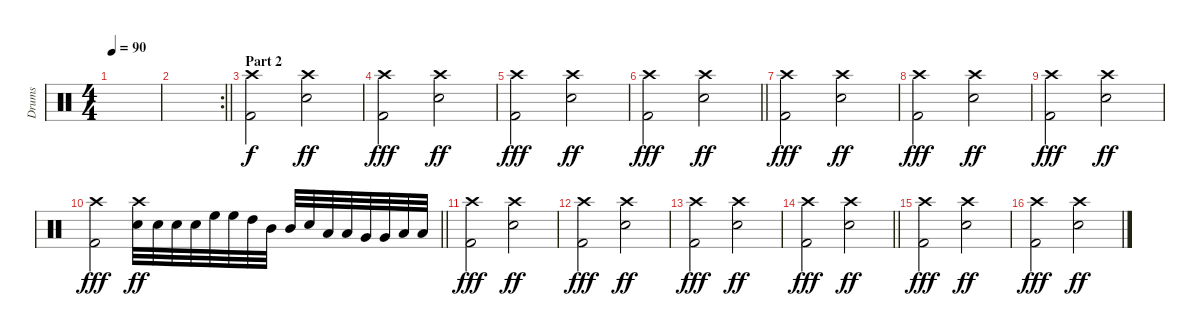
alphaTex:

\track ("Drums" "Drums") {instrument percussion}
\staff {score}
\articulation defaults
\ts (4 4)
\tempo 90
\clef neutral
\ks c
|
\rc 2
\barLineRight lightlight
|
\section ("" "Part 2")
("Crash high (hit)" "Kick (hit) 2").2 ("Crash high (hit)" "Electric Snare (hit)").2{dy ff} |
("Crash high (hit)" "Kick (hit) 2").2{dy fff} ("Crash high (hit)" "Electric Snare (hit)").2{dy ff} |
("Crash high (hit)" "Kick (hit) 2").2{dy fff} ("Crash high (hit)" "Electric Snare (hit)").2{dy ff} |
\barLineRight lightlight
("Crash high (hit)" "Kick (hit) 2").2{dy fff} ("Crash high (hit)" "Electric Snare (hit)").2{dy ff} |
("Crash high (hit)" "Kick (hit) 2").2{dy fff} ("Crash high (hit)" "Electric Snare (hit)").2{dy ff} |
("Crash high (hit)" "Kick (hit) 2").2{dy fff} ("Crash high (hit)" "Electric Snare (hit)").2{dy ff} |
("Crash high (hit)" "Kick (hit) 2").2{dy fff} ("Crash high (hit)" "Electric Snare (hit)").2{dy ff} |
\barLineRight lightlight
("Crash high (hit)" "Kick (hit) 2").2{dy fff} ("Crash high (hit)" "Electric Snare (hit)").32{dy ff} "Electric Snare (hit)".32 "Electric Snare (hit)".32 "Electric Snare (hit)".32 "High Floor Tom (hit)".32 "High Floor Tom (hit)".32 "High Tom (hit)".32 "Mid Tom (hit)".32 "Mid Tom (hit)".32 "Electric Snare (hit)".32 "Low Tom (hit)".32 "Low Tom (hit)".32 "Very Low Tom (hit)".32 "Very Low Tom (hit)".32 "Low Floor Tom (hit)".32 "Low Floor Tom (hit)".32 |
("Crash high (hit)" "Kick (hit) 2").2{dy fff} ("Crash high (hit)" "Electric Snare (hit)").2{dy ff} |
("Crash high (hit)" "Kick (hit) 2").2{dy fff} ("Crash high (hit)" "Electric Snare (hit)").2{dy ff} |
("Crash high (hit)" "Kick (hit) 2").2{dy fff} ("Crash high (hit)" "Electric Snare (hit)").2{dy ff} |
\barLineRight lightlight
("Crash high (hit)" "Kick (hit) 2").2{dy fff} ("Crash high (hit)" "Electric Snare (hit)").2{dy ff} |
("Crash high (hit)" "Kick (hit) 2").2{dy fff} ("Crash high (hit)" "Electric Snare (hit)").2{dy ff} |
("Crash high (hit)" "Kick (hit) 2").2{dy fff} ("Crash high (hit)" "Electric Snare (hit)").2{dy ff}
